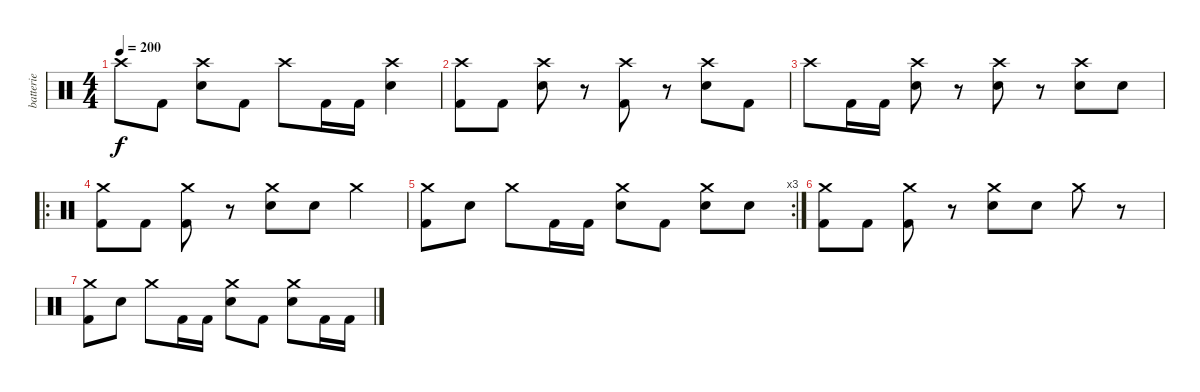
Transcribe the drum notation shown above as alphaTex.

\track ("batterie" "batterie") {instrument percussion}
\staff {score}
\articulation defaults
\ts (4 4)
\tempo 200
\clef neutral
\ks c "Crash high (hit)".8{dy f} "Kick (hit) 2".8
("Crash high (hit)" "Electric Snare (hit)").8 "Kick (hit) 2".8 "Crash high (hit)".8 "Kick (hit) 2".16 "Kick (hit) 2".16 ("Crash high (hit)" "Electric Snare (hit)").4 |
("Crash high (hit)" "Kick (hit) 2").8 "Kick (hit) 2".8 ("Crash high (hit)" "Electric Snare (hit)").8 r.8 ("Crash high (hit)" "Kick (hit) 2").8 r.8 ("Crash high (hit)" "Electric Snare (hit)").8 "Kick (hit) 2".8 |
"Crash high (hit)".8 "Kick (hit) 2".16 "Kick (hit) 2".16 ("Crash high (hit)" "Electric Snare (hit)").8 r.8 ("Crash high (hit)" "Electric Snare (hit)").8 r.8 ("Crash high (hit)" "Electric Snare (hit)").8 "Electric Snare (hit)".8 |
\ro
("Crash medium (hit)" "Kick (hit) 2").8 "Kick (hit) 2".8 ("Crash medium (hit)" "Kick (hit) 2").8 r.8 ("Crash medium (hit)" "Electric Snare (hit)").8 "Electric Snare (hit)".8 "Crash medium (hit)".4 |
\rc 3
("Crash medium (hit)" "Kick (hit) 2").8 "Electric Snare (hit)".8 "Crash medium (hit)".8 "Kick (hit) 2".16 "Kick (hit) 2".16 ("Crash medium (hit)" "Electric Snare (hit)").8 "Kick (hit) 2".8 ("Crash medium (hit)" "Electric Snare (hit)").8 "Electric Snare (hit)".8 |
("Crash medium (hit)" "Kick (hit) 2").8 "Kick (hit) 2".8 ("Crash medium (hit)" "Kick (hit) 2").8 r.8 ("Crash medium (hit)" "Electric Snare (hit)").8 "Electric Snare (hit)".8 "Crash medium (hit)".8 r.8 |
("Crash medium (hit)" "Kick (hit) 2").8 "Electric Snare (hit)".8 "Crash medium (hit)".8 "Kick (hit) 2".16 "Kick (hit) 2".16 ("Crash medium (hit)" "Electric Snare (hit)").8 "Kick (hit) 2".8 ("Crash medium (hit)" "Electric Snare (hit)").8 "Kick (hit) 2".16 "Kick (hit) 2".16
